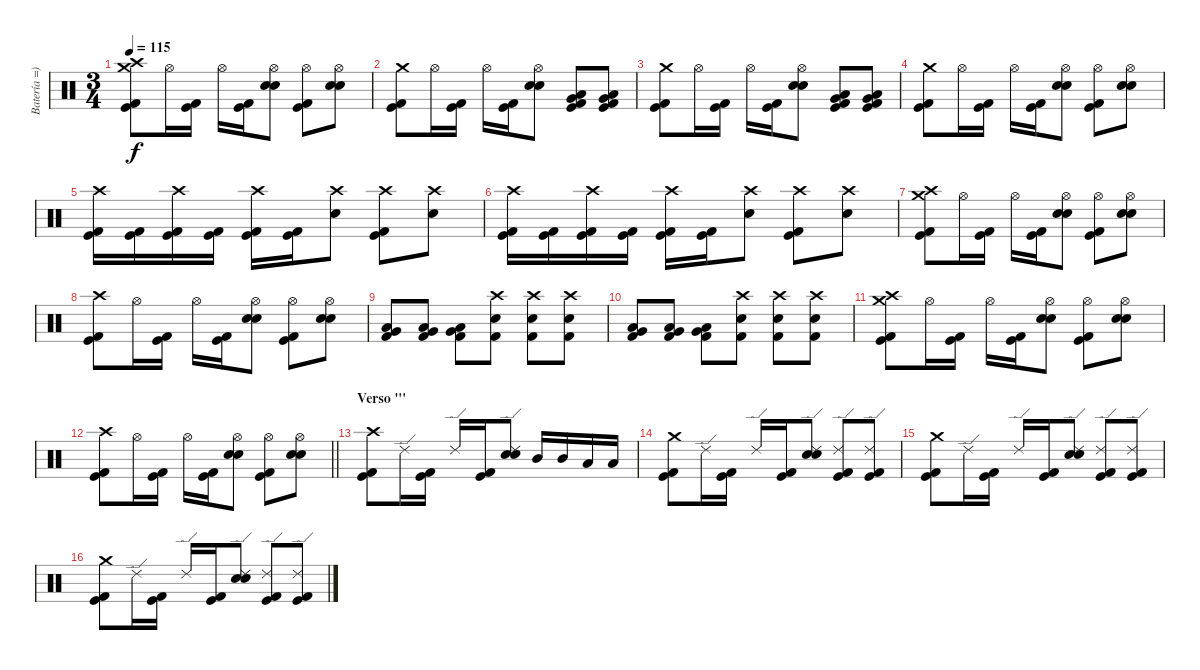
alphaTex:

\track ("Batería =)" "Batería =)") {instrument percussion}
\staff {score}
\articulation defaults
\ts (3 4)
\tempo 115
\clef neutral
\ks c
("Crash high (hit)" "Crash medium (hit)" "Kick (hit)" "Kick (hit) 2").8{dy f} "Hi-Hat (open)".16 ("Kick (hit)" "Kick (hit) 2").16 "Hi-Hat (open)".16 ("Kick (hit)" "Kick (hit) 2").16 ("Hi-Hat (open)" "Snare (hit) 2" "Electric Snare (hit)").8 ("Hi-Hat (open)" "Kick (hit)" "Kick (hit) 2").8 ("Hi-Hat (open)" "Snare (hit) 2" "Electric Snare (hit)").8 |
("Crash medium (hit)" "Kick (hit)" "Kick (hit) 2").8 "Hi-Hat (open)".16 ("Kick (hit)" "Kick (hit) 2").16 "Hi-Hat (open)".16 ("Kick (hit)" "Kick (hit) 2").16 ("Hi-Hat (open)" "Snare (hit) 2" "Electric Snare (hit)").8 ("Low Floor Tom (hit)" "Very Low Tom (hit)" "Kick (hit)" "Kick (hit) 2").8 ("Low Floor Tom (hit)" "Very Low Tom (hit)" "Kick (hit)" "Kick (hit) 2").8 |
("Crash medium (hit)" "Kick (hit)" "Kick (hit) 2").8 "Hi-Hat (open)".16 ("Kick (hit)" "Kick (hit) 2").16 "Hi-Hat (open)".16 ("Kick (hit)" "Kick (hit) 2").16 ("Hi-Hat (open)" "Snare (hit) 2" "Electric Snare (hit)").8 ("Low Floor Tom (hit)" "Very Low Tom (hit)" "Kick (hit)" "Kick (hit) 2").8 ("Low Floor Tom (hit)" "Very Low Tom (hit)" "Kick (hit)" "Kick (hit) 2").8 |
("Crash medium (hit)" "Kick (hit)" "Kick (hit) 2").8 "Hi-Hat (open)".16 ("Kick (hit)" "Kick (hit) 2").16 "Hi-Hat (open)".16 ("Kick (hit)" "Kick (hit) 2").16 ("Hi-Hat (open)" "Snare (hit) 2" "Electric Snare (hit)").8 ("Hi-Hat (open)" "Kick (hit)" "Kick (hit) 2").8 ("Hi-Hat (open)" "Snare (hit) 2" "Electric Snare (hit)").8 |
("Crash high (hit)" "Kick (hit)" "Kick (hit) 2").16 ("Kick (hit)" "Kick (hit) 2").16 ("Crash high (hit)" "Kick (hit)" "Kick (hit) 2").16 ("Kick (hit)" "Kick (hit) 2").16 ("Crash high (hit)" "Kick (hit)" "Kick (hit) 2").16 ("Kick (hit)" "Kick (hit) 2").16 ("Crash high (hit)" "Electric Snare (hit)").8 ("Crash high (hit)" "Kick (hit)" "Kick (hit) 2").8 ("Crash high (hit)" "Electric Snare (hit)").8 |
("Crash high (hit)" "Kick (hit)" "Kick (hit) 2").16 ("Kick (hit)" "Kick (hit) 2").16 ("Crash high (hit)" "Kick (hit)" "Kick (hit) 2").16 ("Kick (hit)" "Kick (hit) 2").16 ("Crash high (hit)" "Kick (hit)" "Kick (hit) 2").16 ("Kick (hit)" "Kick (hit) 2").16 ("Crash high (hit)" "Electric Snare (hit)").8 ("Crash high (hit)" "Kick (hit)" "Kick (hit) 2").8 ("Crash high (hit)" "Electric Snare (hit)").8 |
("Crash high (hit)" "Crash medium (hit)" "Kick (hit)" "Kick (hit) 2").8 "Hi-Hat (open)".16 ("Kick (hit)" "Kick (hit) 2").16 "Hi-Hat (open)".16 ("Kick (hit)" "Kick (hit) 2").16 ("Hi-Hat (open)" "Snare (hit) 2" "Electric Snare (hit)").8 ("Hi-Hat (open)" "Kick (hit)" "Kick (hit) 2").8 ("Hi-Hat (open)" "Snare (hit) 2" "Electric Snare (hit)").8 |
("Crash high (hit)" "Kick (hit)" "Kick (hit) 2").8 "Hi-Hat (open)".16 ("Kick (hit)" "Kick (hit) 2").16 "Hi-Hat (open)".16 ("Kick (hit)" "Kick (hit) 2").16 ("Hi-Hat (open)" "Snare (hit) 2" "Electric Snare (hit)").8 ("Hi-Hat (open)" "Kick (hit)" "Kick (hit) 2").8 ("Hi-Hat (open)" "Snare (hit) 2" "Electric Snare (hit)").8 |
("Very Low Tom (hit)" "Low Floor Tom (hit)" "Kick (hit) 2").8 ("Very Low Tom (hit)" "Low Floor Tom (hit)" "Kick (hit) 2").8 ("Very Low Tom (hit)" "Low Floor Tom (hit)" "Kick (hit) 2").8 ("Crash high (hit)" "Electric Snare (hit)" "Kick (hit) 2").8 ("Crash high (hit)" "Electric Snare (hit)" "Kick (hit) 2").8 ("Crash high (hit)" "Electric Snare (hit)" "Kick (hit) 2").8 |
("Very Low Tom (hit)" "Low Floor Tom (hit)" "Kick (hit) 2").8 ("Very Low Tom (hit)" "Low Floor Tom (hit)" "Kick (hit) 2").8 ("Very Low Tom (hit)" "Low Floor Tom (hit)" "Kick (hit) 2").8 ("Crash high (hit)" "Electric Snare (hit)" "Kick (hit) 2").8 ("Crash high (hit)" "Electric Snare (hit)" "Kick (hit) 2").8 ("Crash high (hit)" "Electric Snare (hit)" "Kick (hit) 2").8 |
("Crash high (hit)" "Crash medium (hit)" "Kick (hit)" "Kick (hit) 2").8 "Hi-Hat (open)".16 ("Kick (hit)" "Kick (hit) 2").16 "Hi-Hat (open)".16 ("Kick (hit)" "Kick (hit) 2").16 ("Hi-Hat (open)" "Snare (hit) 2" "Electric Snare (hit)").8 ("Hi-Hat (open)" "Kick (hit)" "Kick (hit) 2").8 ("Hi-Hat (open)" "Snare (hit) 2" "Electric Snare (hit)").8 |
\barLineRight lightlight
("Crash high (hit)" "Kick (hit)" "Kick (hit) 2").8 "Hi-Hat (open)".16 ("Kick (hit)" "Kick (hit) 2").16 "Hi-Hat (open)".16 ("Kick (hit)" "Kick (hit) 2").16 ("Hi-Hat (open)" "Snare (hit) 2" "Electric Snare (hit)").8 ("Hi-Hat (open)" "Kick (hit)" "Kick (hit) 2").8 ("Hi-Hat (open)" "Snare (hit) 2" "Electric Snare (hit)").8 |
\section ("" "Verso '''")
("Crash high (hit)" "Kick (hit)" "Kick (hit) 2").8 "Ride (edge) 2".16 ("Kick (hit)" "Kick (hit) 2").16 "Ride (edge) 2".16 ("Kick (hit)" "Kick (hit) 2").16 ("Ride (edge) 2" "Electric Snare (hit)" "Snare (hit) 2").8 "Mid Tom (hit)".16 "Mid Tom (hit)".16 "Low Tom (hit)".16 "Low Tom (hit)".16 |
("Crash medium (hit)" "Kick (hit)" "Kick (hit) 2").8 "Ride (edge) 2".16 ("Kick (hit)" "Kick (hit) 2").16 "Ride (edge) 2".16 ("Kick (hit)" "Kick (hit) 2").16 ("Ride (edge) 2" "Electric Snare (hit)" "Snare (hit) 2").8 ("Ride (edge) 2" "Kick (hit)" "Kick (hit) 2").8 ("Ride (edge) 2" "Kick (hit)" "Kick (hit) 2").8 |
("Crash medium (hit)" "Kick (hit)" "Kick (hit) 2").8 "Ride (edge) 2".16 ("Kick (hit)" "Kick (hit) 2").16 "Ride (edge) 2".16 ("Kick (hit)" "Kick (hit) 2").16 ("Ride (edge) 2" "Electric Snare (hit)" "Snare (hit) 2").8 ("Ride (edge) 2" "Kick (hit)" "Kick (hit) 2").8 ("Ride (edge) 2" "Kick (hit)" "Kick (hit) 2").8 |
("Crash medium (hit)" "Kick (hit)" "Kick (hit) 2").8 "Ride (edge) 2".16 ("Kick (hit)" "Kick (hit) 2").16 "Ride (edge) 2".16 ("Kick (hit)" "Kick (hit) 2").16 ("Ride (edge) 2" "Electric Snare (hit)" "Snare (hit) 2").8 ("Ride (edge) 2" "Kick (hit)" "Kick (hit) 2").8 ("Ride (edge) 2" "Kick (hit)" "Kick (hit) 2").8
